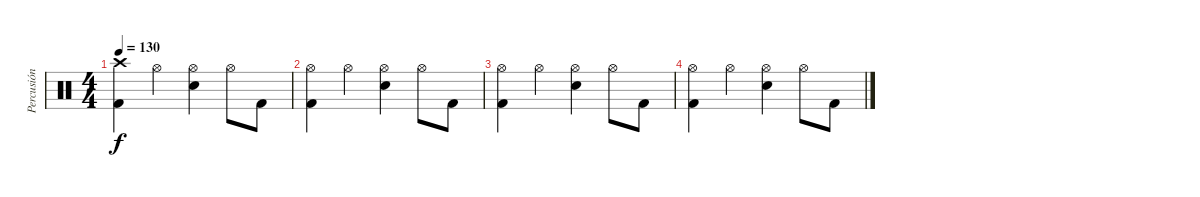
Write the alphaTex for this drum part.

\track ("Percusión" "Percusión") {instrument percussion}
\staff {score}
\articulation defaults
\ts (4 4)
\tempo 130
\clef neutral
\ks c
("Crash high (hit)" "Kick (hit) 2").4{dy f} "Hi-Hat (open)".4 ("Hi-Hat (open)" "Electric Snare (hit)").4 "Hi-Hat (open)".8 "Kick (hit) 2".8 |
("Hi-Hat (open)" "Kick (hit) 2").4 "Hi-Hat (open)".4 ("Hi-Hat (open)" "Electric Snare (hit)").4 "Hi-Hat (open)".8 "Kick (hit) 2".8 |
("Hi-Hat (open)" "Kick (hit) 2").4 "Hi-Hat (open)".4 ("Hi-Hat (open)" "Electric Snare (hit)").4 "Hi-Hat (open)".8 "Kick (hit) 2".8 |
("Hi-Hat (open)" "Kick (hit) 2").4 "Hi-Hat (open)".4 ("Hi-Hat (open)" "Electric Snare (hit)").4 "Hi-Hat (open)".8 "Kick (hit) 2".8
